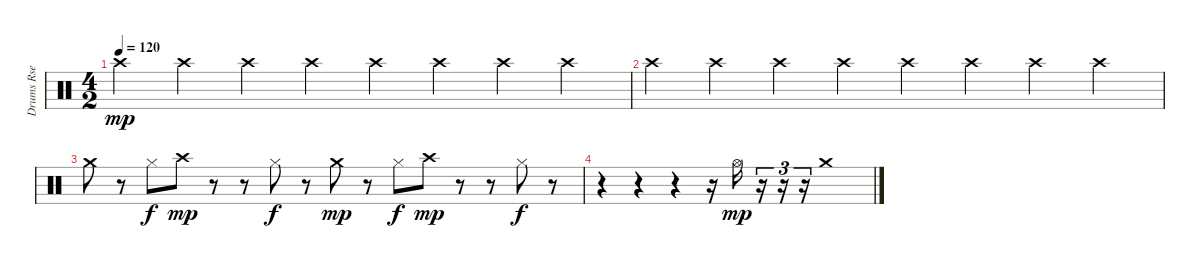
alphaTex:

\track ("Drums Rse" "Drums Rse") {instrument percussion}
\staff {score}
\articulation defaults
\ts (4 2)
\tempo 120
\clef neutral
\ks c "Crash high (hit)".4{dy mp} "Crash high (hit)".4 "Crash high (hit)".4 "Crash high (hit)".4 "Crash high (hit)".4 "Crash high (hit)".4 "Crash high (hit)".4 "Crash high (hit)".4
|
"Crash high (hit)".4 "Crash high (hit)".4 "Crash high (hit)".4 "Crash high (hit)".4 "Crash high (hit)".4 "Crash high (hit)".4 "Crash high (hit)".4 "Crash high (hit)".4 |
"Crash medium (hit)".8 r.8 "Hi-Hat (closed)".8{dy f} "Crash high (hit)".8{dy mp} r.8 r.8 "Hi-Hat (closed)".8{dy f} r.8 "Crash medium (hit)".8{dy mp} r.8 "Hi-Hat (closed)".8{dy f} "Crash high (hit)".8{dy mp} r.8 r.8 "Hi-Hat (closed)".8{dy f} r.8 |
r.4 r.4 r.4 r.16 "Hi-Hat (open)".16{dy mp} r.16{tu (3 2)} r.16{tu (3 2)} r.16{tu (3 2)} "Crash medium (hit)".1
